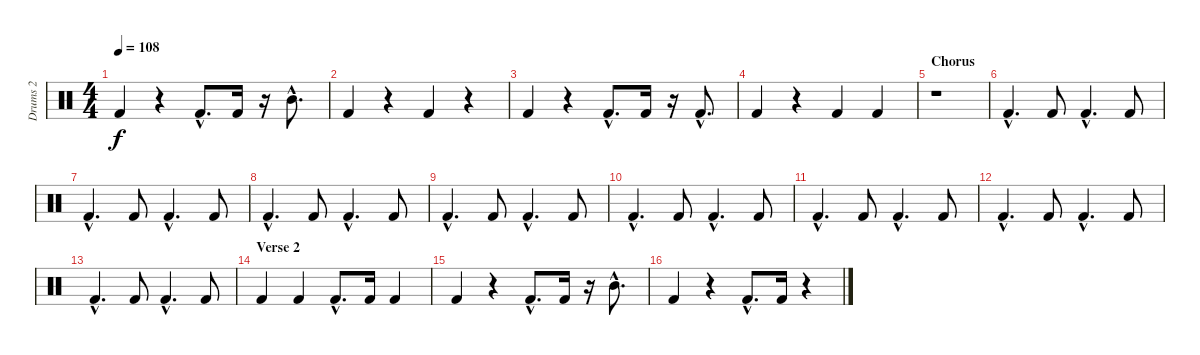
\track ("Drums 2" "Drums 2") {instrument percussion}
\staff {score}
\articulation defaults
\ts (4 4)
\tempo 108
\clef neutral
\ks c "Kick (hit) 2".4{dy f}
r.4 "Kick (hit) 2"{hac}.8{d} "Kick (hit) 2".16 r.16 "Mid Tom (hit)"{hac}.8{d} |
"Kick (hit) 2".4 r.4 "Kick (hit) 2".4 r.4 |
"Kick (hit) 2".4 r.4 "Kick (hit) 2"{hac}.8{d} "Kick (hit) 2".16 r.16 "Kick (hit) 2"{hac}.8{d} |
"Kick (hit) 2".4 r.4 "Kick (hit) 2".4 "Kick (hit) 2".4 |
\section ("" "Chorus")
r.1 |
"Kick (hit) 2"{hac}.4{d} "Kick (hit) 2".8 "Kick (hit) 2"{hac}.4{d} "Kick (hit) 2".8 |
"Kick (hit) 2"{hac}.4{d} "Kick (hit) 2".8 "Kick (hit) 2"{hac}.4{d} "Kick (hit) 2".8 |
"Kick (hit) 2"{hac}.4{d} "Kick (hit) 2".8 "Kick (hit) 2"{hac}.4{d} "Kick (hit) 2".8 |
"Kick (hit) 2"{hac}.4{d} "Kick (hit) 2".8 "Kick (hit) 2"{hac}.4{d} "Kick (hit) 2".8 |
"Kick (hit) 2"{hac}.4{d} "Kick (hit) 2".8 "Kick (hit) 2"{hac}.4{d} "Kick (hit) 2".8 |
"Kick (hit) 2"{hac}.4{d} "Kick (hit) 2".8 "Kick (hit) 2"{hac}.4{d} "Kick (hit) 2".8 |
"Kick (hit) 2"{hac}.4{d} "Kick (hit) 2".8 "Kick (hit) 2"{hac}.4{d} "Kick (hit) 2".8 |
"Kick (hit) 2"{hac}.4{d} "Kick (hit) 2".8 "Kick (hit) 2"{hac}.4{d} "Kick (hit) 2".8 |
\section ("" "Verse 2")
"Kick (hit) 2".4 "Kick (hit) 2".4 "Kick (hit) 2"{hac}.8{d} "Kick (hit) 2".16 "Kick (hit) 2".4 |
"Kick (hit) 2".4 r.4 "Kick (hit) 2"{hac}.8{d} "Kick (hit) 2".16 r.16 "Mid Tom (hit)"{hac}.8{d} |
"Kick (hit) 2".4 r.4 "Kick (hit) 2"{hac}.8{d} "Kick (hit) 2".16 r.4
